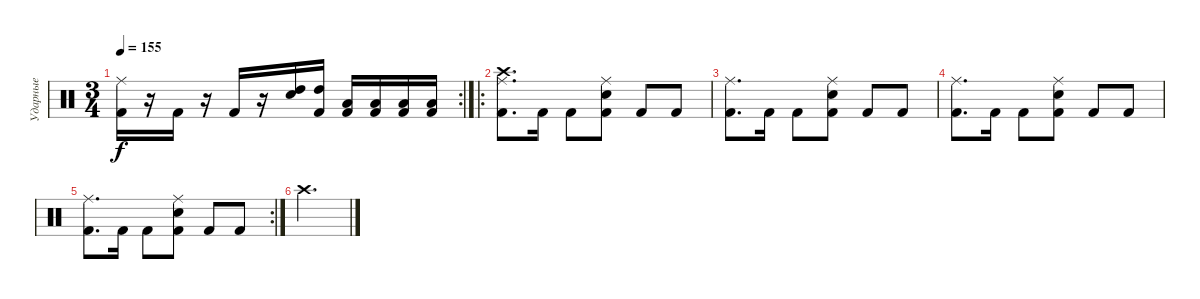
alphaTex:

\track ("Ударные" "Ударные") {instrument percussion}
\staff {score}
\articulation defaults
\rc 2
\ts (3 4)
\tempo 155
\clef neutral
\ks c
("Ride (middle)" "Kick (hit) 2").16{dy f} r.16 "Kick (hit) 2".16 r.16 "Kick (hit) 2".16 r.16 ("High Tom (hit)" "Snare (hit) 2").16 ("High Tom (hit)" "Kick (hit) 2").16 ("Low Tom (hit)" "Kick (hit) 2").16 ("Low Floor Tom (hit)" "Kick (hit) 2").16 ("Low Floor Tom (hit)" "Kick (hit) 2").16 ("Low Floor Tom (hit)" "Kick (hit) 2").16 |
\ro
("Kick (hit) 2" "Ride (middle)" "Crash high (hit)").8{d} "Kick (hit) 2".16 "Kick (hit) 2".8 ("Kick (hit) 2" "Ride (middle)" "Snare (hit) 2").8 "Kick (hit) 2".8 "Kick (hit) 2".8 |
("Kick (hit) 2" "Ride (middle)").8{d} "Kick (hit) 2".16 "Kick (hit) 2".8 ("Kick (hit) 2" "Ride (middle)" "Snare (hit) 2").8 "Kick (hit) 2".8 "Kick (hit) 2".8 |
("Kick (hit) 2" "Ride (middle)").8{d} "Kick (hit) 2".16 "Kick (hit) 2".8 ("Kick (hit) 2" "Ride (middle)" "Snare (hit) 2").8 "Kick (hit) 2".8 "Kick (hit) 2".8 |
\rc 2
("Kick (hit) 2" "Ride (middle)").8{d} "Kick (hit) 2".16 "Kick (hit) 2".8 ("Kick (hit) 2" "Ride (middle)" "Snare (hit) 2").8 "Kick (hit) 2".8 "Kick (hit) 2".8 |
"Crash high (hit)".2{d}
